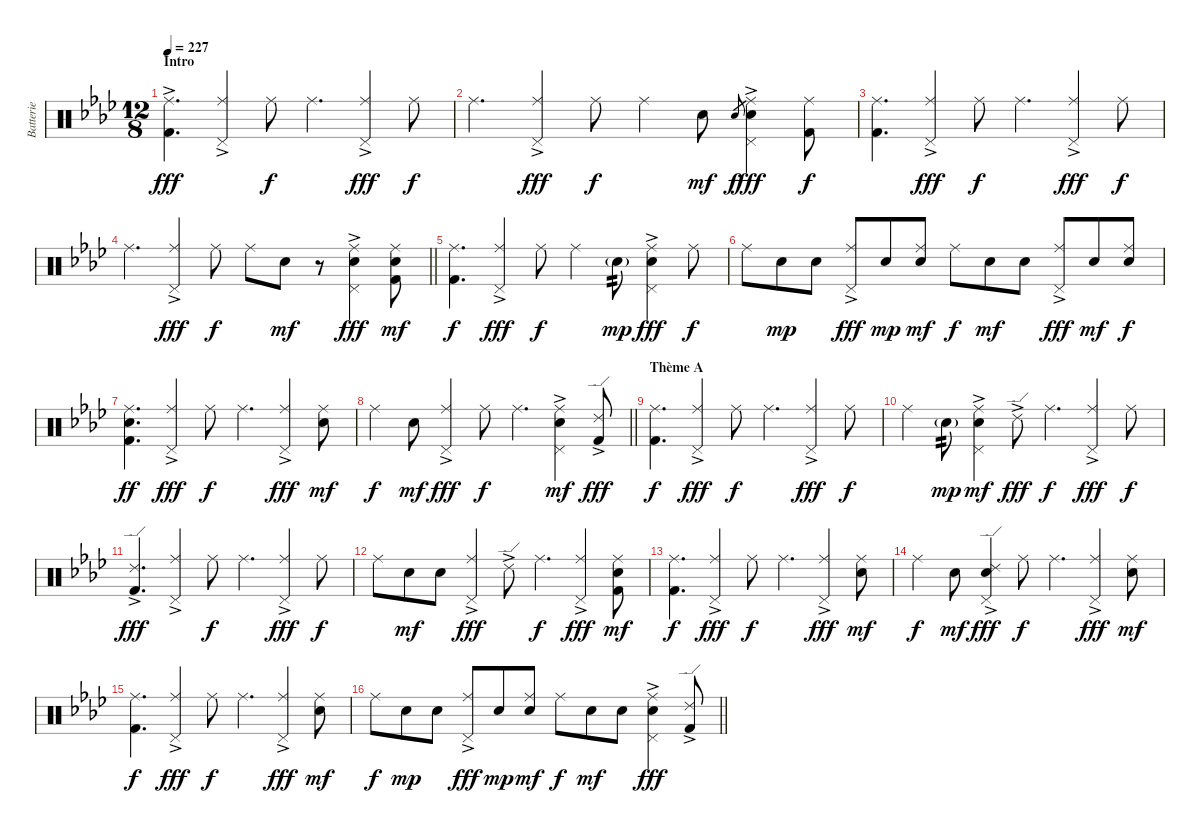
\track ("Batterie" "Batterie") {instrument percussion}
\staff {score}
\articulation defaults
\ts (12 8)
\section ("" "Intro")
\tempo 227
\clef neutral
\ks fminor
("Ride (middle)"{ac} "Kick (hit) 2").4{d dy fff volume 4 balance 8} ("Ride (middle)" "Pedal Hi-Hat (hit)"{ac}).4 "Ride (middle)".8{dy f} "Ride (middle)".4{d} ("Ride (middle)" "Pedal Hi-Hat (hit)"{ac}).4{dy fff} "Ride (middle)".8{dy f} |
"Ride (middle)".4{d volume 5 balance 8} ("Ride (middle)" "Pedal Hi-Hat (hit)"{ac}).4{dy fff} "Ride (middle)".8{dy f} "Ride (middle)".4 "Snare (hit) 2".8{dy mf} "Snare (hit) 2".8{gr dy f} ("Ride (middle)" "Pedal Hi-Hat (hit)"{ac} "Snare (hit) 2").4{dy fff} ("Ride (middle)" "Kick (hit) 2").8{dy f} |
("Ride (middle)" "Kick (hit) 2").4{d volume 6 balance 8} ("Ride (middle)" "Pedal Hi-Hat (hit)"{ac}).4{dy fff} "Ride (middle)".8{dy f} "Ride (middle)".4{d} ("Ride (middle)" "Pedal Hi-Hat (hit)"{ac}).4{dy fff} "Ride (middle)".8{dy f} |
\barLineRight lightlight "Ride (middle)".4{d volume 7 balance 8}
("Ride (middle)" "Pedal Hi-Hat (hit)"{ac}).4{dy fff} "Ride (middle)".8{dy f} "Ride (middle)".8 "Snare (hit) 2".8{dy mf} r.8 ("Ride (middle)" "Pedal Hi-Hat (hit)"{ac} "Snare (hit) 2").4{dy fff} ("Ride (middle)" "Snare (hit) 2" "Kick (hit) 2").8{dy mf} |
("Ride (middle)" "Kick (hit) 2").4{d dy f volume 8 balance 8} ("Ride (middle)" "Pedal Hi-Hat (hit)"{ac}).4{dy fff} "Ride (middle)".8{dy f} "Ride (middle)".4 "Snare (hit) 2"{g}.8{tp 2 dy mp} ("Ride (middle)" "Pedal Hi-Hat (hit)"{ac} "Snare (hit) 2").4{dy fff} "Ride (middle)".8{dy f} |
"Ride (middle)".8{volume 9 balance 8} "Snare (hit) 2".8{dy mp} "Snare (hit) 2".8 ("Ride (middle)" "Pedal Hi-Hat (hit)"{ac}).8{dy fff} "Snare (hit) 2".8{dy mp} ("Ride (middle)" "Snare (hit) 2").8{dy mf} "Ride (middle)".8{dy f} "Snare (hit) 2".8{dy mf} "Snare (hit) 2".8 ("Ride (middle)" "Pedal Hi-Hat (hit)"{ac}).8{dy fff} "Snare (hit) 2".8{dy mf} ("Ride (middle)" "Snare (hit) 2").8{dy f} |
("Ride (middle)" "Snare (hit) 2" "Kick (hit) 2").4{d dy ff volume 10 balance 8} ("Ride (middle)" "Pedal Hi-Hat (hit)"{ac}).4{dy fff} "Ride (middle)".8{dy f} "Ride (middle)".4{d} ("Ride (middle)" "Pedal Hi-Hat (hit)"{ac}).4{dy fff} ("Ride (middle)" "Snare (hit) 2").8{dy mf} |
\barLineRight lightlight "Ride (middle)".4{dy f volume 11 balance 8} "Snare (hit) 2".8{dy mf}
("Ride (middle)" "Pedal Hi-Hat (hit)"{ac}).4{dy fff} "Ride (middle)".8{dy f} "Ride (middle)".4{d} ("Ride (middle)" "Pedal Hi-Hat (hit)"{ac} "Snare (hit) 2").4{dy mf} ("Ride (edge) 2"{ac} "Kick (hit) 2").8{dy fff} |
\section ("" "Thème A")
("Ride (middle)" "Kick (hit) 2").4{d dy f volume 12 balance 8} ("Ride (middle)" "Pedal Hi-Hat (hit)"{ac}).4{dy fff} "Ride (middle)".8{dy f} "Ride (middle)".4{d} ("Ride (middle)" "Pedal Hi-Hat (hit)"{ac}).4{dy fff} "Ride (middle)".8{dy f} |
"Ride (middle)".4 "Snare (hit) 2"{g}.8{tp 2 dy mp} ("Ride (middle)" "Pedal Hi-Hat (hit)"{ac} "Snare (hit) 2").4{dy mf} "Ride (edge) 2"{ac}.8{dy fff} "Ride (middle)".4{d dy f} ("Ride (middle)" "Pedal Hi-Hat (hit)"{ac}).4{dy fff} "Ride (middle)".8{dy f} |
("Ride (edge) 2"{ac} "Kick (hit) 2").4{d dy fff} ("Ride (middle)" "Pedal Hi-Hat (hit)"{ac}).4 "Ride (middle)".8{dy f} "Ride (middle)".4{d} ("Ride (middle)" "Pedal Hi-Hat (hit)"{ac}).4{dy fff} "Ride (middle)".8{dy f} |
"Ride (middle)".8 "Snare (hit) 2".8{dy mf} "Snare (hit) 2".8 ("Ride (middle)" "Pedal Hi-Hat (hit)"{ac}).4{dy fff} "Ride (edge) 2"{ac}.8 "Ride (middle)".4{d dy f} ("Ride (middle)" "Pedal Hi-Hat (hit)"{ac}).4{dy fff} ("Ride (middle)" "Snare (hit) 2" "Kick (hit) 2").8{dy mf} |
("Ride (middle)" "Kick (hit) 2").4{d dy f} ("Ride (middle)" "Pedal Hi-Hat (hit)"{ac}).4{dy fff} "Ride (middle)".8{dy f} "Ride (middle)".4{d} ("Ride (middle)" "Pedal Hi-Hat (hit)"{ac}).4{dy fff} ("Ride (middle)" "Snare (hit) 2").8{dy mf} |
"Ride (middle)".4{dy f} "Snare (hit) 2".8{dy mf} ("Ride (edge) 2"{ac} "Pedal Hi-Hat (hit)"{ac} "Snare (hit) 2").4{dy fff} "Ride (middle)".8{dy f} "Ride (middle)".4{d} ("Ride (middle)" "Pedal Hi-Hat (hit)"{ac}).4{dy fff} ("Ride (middle)" "Snare (hit) 2").8{dy mf} |
("Ride (middle)" "Kick (hit) 2").4{d dy f} ("Ride (middle)" "Pedal Hi-Hat (hit)"{ac}).4{dy fff} "Ride (middle)".8{dy f} "Ride (middle)".4{d} ("Ride (middle)" "Pedal Hi-Hat (hit)"{ac}).4{dy fff} ("Ride (middle)" "Snare (hit) 2").8{dy mf} |
\barLineRight lightlight "Ride (middle)".8{dy f} "Snare (hit) 2".8{dy mp} "Snare (hit) 2".8
("Ride (middle)" "Pedal Hi-Hat (hit)"{ac}).8{dy fff} "Snare (hit) 2".8{dy mp} ("Ride (middle)" "Snare (hit) 2").8{dy mf} "Ride (middle)".8{dy f} "Snare (hit) 2".8{dy mf} "Snare (hit) 2".8 ("Ride (middle)" "Pedal Hi-Hat (hit)"{ac} "Snare (hit) 2").4{dy fff} ("Ride (edge) 2"{ac} "Kick (hit) 2").8
